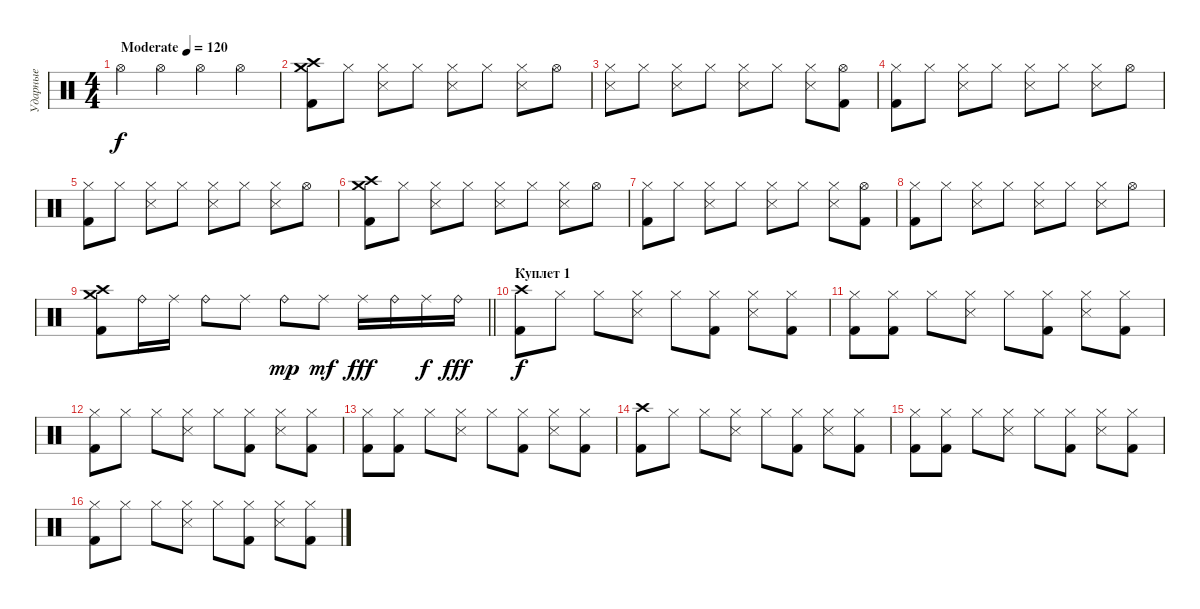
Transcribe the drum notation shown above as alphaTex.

\track ("Ударные" "Ударные") {instrument percussion}
\staff
\articulation defaults
\ts (4 4)
\tempo (120 "Moderate")
\clef neutral
\ks c "Hi-Hat (open)".4{dy f} "Hi-Hat (open)".4 "Hi-Hat (open)".4 "Hi-Hat (open)".4
|
("Crash medium (hit)" "Crash high (hit)" "Kick (hit) 2").8 "Hi-Hat (closed)".8 ("Hi-Hat (closed)" "Snare (side stick) 3").8 "Hi-Hat (closed)".8 ("Hi-Hat (closed)" "Snare (side stick) 3").8 "Hi-Hat (closed)".8 ("Hi-Hat (closed)" "Snare (side stick) 3").8 "Hi-Hat (open)".8 |
("Hi-Hat (closed)" "Snare (side stick) 3").8 "Hi-Hat (closed)".8 ("Hi-Hat (closed)" "Snare (side stick) 3").8 "Hi-Hat (closed)".8 ("Hi-Hat (closed)" "Snare (side stick) 3").8 "Hi-Hat (closed)".8 ("Hi-Hat (closed)" "Snare (side stick) 3").8 ("Hi-Hat (open)" "Kick (hit) 2").8 |
("Hi-Hat (closed)" "Kick (hit) 2").8 "Hi-Hat (closed)".8 ("Hi-Hat (closed)" "Snare (side stick) 3").8 "Hi-Hat (closed)".8 ("Hi-Hat (closed)" "Snare (side stick) 3").8 "Hi-Hat (closed)".8 ("Hi-Hat (closed)" "Snare (side stick) 3").8 "Hi-Hat (open)".8 |
("Hi-Hat (closed)" "Kick (hit) 2").8 "Hi-Hat (closed)".8 ("Hi-Hat (closed)" "Snare (side stick) 3").8 "Hi-Hat (closed)".8 ("Hi-Hat (closed)" "Snare (side stick) 3").8 "Hi-Hat (closed)".8 ("Hi-Hat (closed)" "Snare (side stick) 3").8 "Hi-Hat (open)".8 |
("Crash medium (hit)" "Crash high (hit)" "Kick (hit) 2").8 "Hi-Hat (closed)".8 ("Hi-Hat (closed)" "Snare (side stick) 3").8 "Hi-Hat (closed)".8 ("Hi-Hat (closed)" "Snare (side stick) 3").8 "Hi-Hat (closed)".8 ("Hi-Hat (closed)" "Snare (side stick) 3").8 "Hi-Hat (open)".8 |
("Hi-Hat (closed)" "Kick (hit) 2").8 "Hi-Hat (closed)".8 ("Hi-Hat (closed)" "Snare (side stick) 3").8 "Hi-Hat (closed)".8 ("Hi-Hat (closed)" "Snare (side stick) 3").8 "Hi-Hat (closed)".8 ("Hi-Hat (closed)" "Snare (side stick) 3").8 ("Hi-Hat (open)" "Kick (hit) 2").8 |
("Hi-Hat (closed)" "Kick (hit) 2").8 "Hi-Hat (closed)".8 ("Hi-Hat (closed)" "Snare (side stick) 3").8 "Hi-Hat (closed)".8 ("Hi-Hat (closed)" "Snare (side stick) 3").8 "Hi-Hat (closed)".8 ("Hi-Hat (closed)" "Snare (side stick) 3").8 "Hi-Hat (open)".8 |
\barLineRight lightlight
("Crash medium (hit)" "Crash high (hit)" "Kick (hit) 2").8 "Ride (bell)".16 "Ride (middle)".16 "Ride (bell)".8 "Ride (middle)".8 "Ride (bell)".8{dy mp} "Ride (middle)".8{dy mf} "Ride (middle)".16{dy fff} "Ride (bell)".16 "Ride (middle)".16{dy f} "Ride (bell)".16{dy fff} |
\section ("" "Куплет 1")
("Crash high (hit)" "Kick (hit) 2").8{dy f} "Hi-Hat (closed)".8 "Hi-Hat (closed)".8 ("Hi-Hat (closed)" "Snare (side stick) 3").8 "Hi-Hat (closed)".8 ("Hi-Hat (closed)" "Kick (hit) 2").8 ("Hi-Hat (closed)" "Snare (side stick) 3").8 ("Hi-Hat (closed)" "Kick (hit) 2").8 |
("Hi-Hat (closed)" "Kick (hit) 2").8 ("Hi-Hat (closed)" "Kick (hit) 2").8 "Hi-Hat (closed)".8 ("Hi-Hat (closed)" "Snare (side stick) 3").8 "Hi-Hat (closed)".8 ("Hi-Hat (closed)" "Kick (hit) 2").8 ("Hi-Hat (closed)" "Snare (side stick) 3").8 ("Hi-Hat (closed)" "Kick (hit) 2").8 |
("Hi-Hat (closed)" "Kick (hit) 2").8 "Hi-Hat (closed)".8 "Hi-Hat (closed)".8 ("Hi-Hat (closed)" "Snare (side stick) 3").8 "Hi-Hat (closed)".8 ("Hi-Hat (closed)" "Kick (hit) 2").8 ("Hi-Hat (closed)" "Snare (side stick) 3").8 ("Hi-Hat (closed)" "Kick (hit) 2").8 |
("Hi-Hat (closed)" "Kick (hit) 2").8 ("Hi-Hat (closed)" "Kick (hit) 2").8 "Hi-Hat (closed)".8 ("Hi-Hat (closed)" "Snare (side stick) 3").8 "Hi-Hat (closed)".8 ("Hi-Hat (closed)" "Kick (hit) 2").8 ("Hi-Hat (closed)" "Snare (side stick) 3").8 ("Hi-Hat (closed)" "Kick (hit) 2").8 |
("Crash high (hit)" "Kick (hit) 2").8 "Hi-Hat (closed)".8 "Hi-Hat (closed)".8 ("Hi-Hat (closed)" "Snare (side stick) 3").8 "Hi-Hat (closed)".8 ("Hi-Hat (closed)" "Kick (hit) 2").8 ("Hi-Hat (closed)" "Snare (side stick) 3").8 ("Hi-Hat (closed)" "Kick (hit) 2").8 |
("Hi-Hat (closed)" "Kick (hit) 2").8 ("Hi-Hat (closed)" "Kick (hit) 2").8 "Hi-Hat (closed)".8 ("Hi-Hat (closed)" "Snare (side stick) 3").8 "Hi-Hat (closed)".8 ("Hi-Hat (closed)" "Kick (hit) 2").8 ("Hi-Hat (closed)" "Snare (side stick) 3").8 ("Hi-Hat (closed)" "Kick (hit) 2").8 |
("Hi-Hat (closed)" "Kick (hit) 2").8 "Hi-Hat (closed)".8 "Hi-Hat (closed)".8 ("Hi-Hat (closed)" "Snare (side stick) 3").8 "Hi-Hat (closed)".8 ("Hi-Hat (closed)" "Kick (hit) 2").8 ("Hi-Hat (closed)" "Snare (side stick) 3").8 ("Hi-Hat (closed)" "Kick (hit) 2").8
